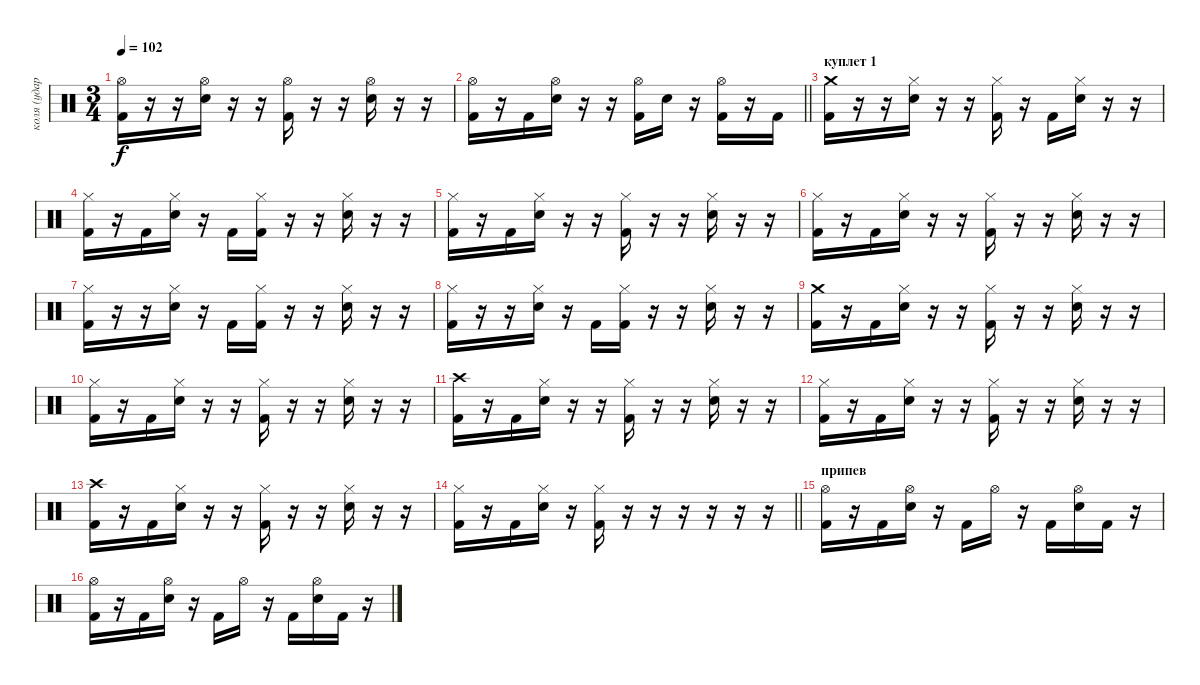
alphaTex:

\track ("коля (ударные)" "коля (удар") {instrument percussion}
\staff {score}
\articulation defaults
\ts (3 4)
\tempo 102
\clef neutral
\ks c
("Kick (hit) 2" "Hi-Hat (open)").16{dy f} r.16 r.16 ("Snare (hit) 2" "Hi-Hat (open)").16 r.16 r.16 ("Kick (hit) 2" "Hi-Hat (open)").16 r.16 r.16 ("Snare (hit) 2" "Hi-Hat (open)").16 r.16 r.16 |
\barLineRight lightlight
("Kick (hit) 2" "Hi-Hat (open)").16 r.16 "Kick (hit) 2".16 ("Snare (hit) 2" "Hi-Hat (open)").16 r.16 r.16 ("Kick (hit) 2" "Hi-Hat (open)").16 "Snare (hit) 2".16 r.16 ("Kick (hit) 2" "Hi-Hat (open)").16 r.16 "Kick (hit) 2".16 |
\section ("" "куплет 1")
("Kick (hit) 2" "Crash medium (hit)").16 r.16 r.16 ("Snare (hit) 2" "Hi-Hat (closed)").16 r.16 r.16 ("Kick (hit) 2" "Hi-Hat (closed)").16 r.16 "Kick (hit) 2".16 ("Snare (hit) 2" "Hi-Hat (closed)").16 r.16 r.16 |
("Kick (hit) 2" "Hi-Hat (closed)").16 r.16 "Kick (hit) 2".16 ("Snare (hit) 2" "Hi-Hat (closed)").16 r.16 "Kick (hit) 2".16 ("Kick (hit) 2" "Hi-Hat (closed)").16 r.16 r.16 ("Snare (hit) 2" "Hi-Hat (closed)").16 r.16 r.16 |
("Kick (hit) 2" "Hi-Hat (closed)").16 r.16 "Kick (hit) 2".16 ("Snare (hit) 2" "Hi-Hat (closed)").16 r.16 r.16 ("Kick (hit) 2" "Hi-Hat (closed)").16 r.16 r.16 ("Snare (hit) 2" "Hi-Hat (closed)").16 r.16 r.16 |
("Kick (hit) 2" "Hi-Hat (closed)").16 r.16 "Kick (hit) 2".16 ("Snare (hit) 2" "Hi-Hat (closed)").16 r.16 r.16 ("Kick (hit) 2" "Hi-Hat (closed)").16 r.16 r.16 ("Snare (hit) 2" "Hi-Hat (closed)").16 r.16 r.16 |
("Kick (hit) 2" "Hi-Hat (closed)").16 r.16 r.16 ("Snare (hit) 2" "Hi-Hat (closed)").16 r.16 "Kick (hit) 2".16 ("Kick (hit) 2" "Hi-Hat (closed)").16 r.16 r.16 ("Snare (hit) 2" "Hi-Hat (closed)").16 r.16 r.16 |
("Kick (hit) 2" "Hi-Hat (closed)").16 r.16 r.16 ("Snare (hit) 2" "Hi-Hat (closed)").16 r.16 "Kick (hit) 2".16 ("Kick (hit) 2" "Hi-Hat (closed)").16 r.16 r.16 ("Snare (hit) 2" "Hi-Hat (closed)").16 r.16 r.16 |
("Kick (hit) 2" "Crash medium (hit)").16 r.16 "Kick (hit) 2".16 ("Snare (hit) 2" "Hi-Hat (closed)").16 r.16 r.16 ("Kick (hit) 2" "Hi-Hat (closed)").16 r.16 r.16 ("Snare (hit) 2" "Hi-Hat (closed)").16 r.16 r.16 |
("Kick (hit) 2" "Hi-Hat (closed)").16 r.16 "Kick (hit) 2".16 ("Snare (hit) 2" "Hi-Hat (closed)").16 r.16 r.16 ("Kick (hit) 2" "Hi-Hat (closed)").16 r.16 r.16 ("Snare (hit) 2" "Hi-Hat (closed)").16 r.16 r.16 |
("Kick (hit) 2" "Crash high (hit)").16 r.16 "Kick (hit) 2".16 ("Snare (hit) 2" "Hi-Hat (closed)").16 r.16 r.16 ("Kick (hit) 2" "Hi-Hat (closed)").16 r.16 r.16 ("Snare (hit) 2" "Hi-Hat (closed)").16 r.16 r.16 |
("Kick (hit) 2" "Hi-Hat (closed)").16 r.16 "Kick (hit) 2".16 ("Snare (hit) 2" "Hi-Hat (closed)").16 r.16 r.16 ("Kick (hit) 2" "Hi-Hat (closed)").16 r.16 r.16 ("Snare (hit) 2" "Hi-Hat (closed)").16 r.16 r.16 |
("Kick (hit) 2" "Crash high (hit)").16 r.16 "Kick (hit) 2".16 ("Snare (hit) 2" "Hi-Hat (closed)").16 r.16 r.16 ("Kick (hit) 2" "Hi-Hat (closed)").16 r.16 r.16 ("Snare (hit) 2" "Hi-Hat (closed)").16 r.16 r.16 |
\barLineRight lightlight
("Kick (hit) 2" "Hi-Hat (closed)").16 r.16 "Kick (hit) 2".16 ("Snare (hit) 2" "Hi-Hat (closed)").16 r.16 ("Kick (hit) 2" "Hi-Hat (closed)").16 r.16 r.16 r.16 r.16 r.16 r.16 |
\section ("" "припев")
("Kick (hit) 2" "Hi-Hat (open)").16 r.16 "Kick (hit) 2".16 ("Snare (hit) 2" "Hi-Hat (open)").16 r.16 "Kick (hit) 2".16 "Hi-Hat (open)".16 r.16 "Kick (hit) 2".16 ("Snare (hit) 2" "Hi-Hat (open)").16 "Kick (hit) 2".16 r.16 |
("Kick (hit) 2" "Hi-Hat (open)").16 r.16 "Kick (hit) 2".16 ("Snare (hit) 2" "Hi-Hat (open)").16 r.16 "Kick (hit) 2".16 "Hi-Hat (open)".16 r.16 "Kick (hit) 2".16 ("Snare (hit) 2" "Hi-Hat (open)").16 "Kick (hit) 2".16 r.16
